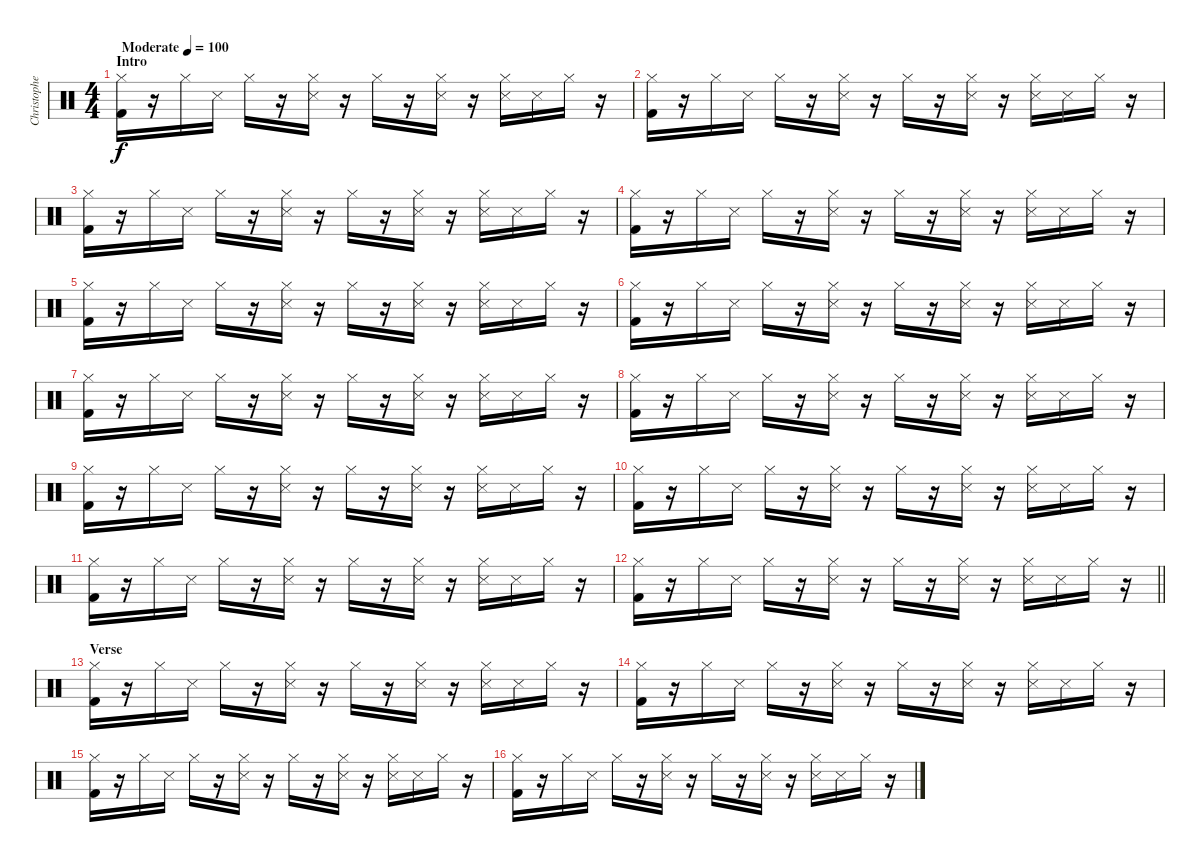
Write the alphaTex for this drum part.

\track ("Christopher - Drums" "Christophe") {instrument percussion}
\staff {score}
\articulation defaults
\ts (4 4)
\section ("" "Intro")
\tempo (100 "Moderate")
\clef neutral
\ks c
("Hi-Hat (closed)" "Kick (hit) 2").16{dy f} r.16 "Hi-Hat (closed)".16 "Snare (side stick) 3".16 "Hi-Hat (closed)".16 r.16 ("Hi-Hat (closed)" "Snare (side stick) 3").16 r.16 "Hi-Hat (closed)".16 r.16 ("Hi-Hat (closed)" "Snare (side stick) 3").16 r.16 ("Hi-Hat (closed)" "Snare (side stick) 3").16 "Snare (side stick) 3".16 "Hi-Hat (closed)".16 r.16 |
("Hi-Hat (closed)" "Kick (hit) 2").16 r.16 "Hi-Hat (closed)".16 "Snare (side stick) 3".16 "Hi-Hat (closed)".16 r.16 ("Hi-Hat (closed)" "Snare (side stick) 3").16 r.16 "Hi-Hat (closed)".16 r.16 ("Hi-Hat (closed)" "Snare (side stick) 3").16 r.16 ("Hi-Hat (closed)" "Snare (side stick) 3").16 "Snare (side stick) 3".16 "Hi-Hat (closed)".16 r.16 |
("Hi-Hat (closed)" "Kick (hit) 2").16 r.16 "Hi-Hat (closed)".16 "Snare (side stick) 3".16 "Hi-Hat (closed)".16 r.16 ("Hi-Hat (closed)" "Snare (side stick) 3").16 r.16 "Hi-Hat (closed)".16 r.16 ("Hi-Hat (closed)" "Snare (side stick) 3").16 r.16 ("Hi-Hat (closed)" "Snare (side stick) 3").16 "Snare (side stick) 3".16 "Hi-Hat (closed)".16 r.16 |
("Hi-Hat (closed)" "Kick (hit) 2").16 r.16 "Hi-Hat (closed)".16 "Snare (side stick) 3".16 "Hi-Hat (closed)".16 r.16 ("Hi-Hat (closed)" "Snare (side stick) 3").16 r.16 "Hi-Hat (closed)".16 r.16 ("Hi-Hat (closed)" "Snare (side stick) 3").16 r.16 ("Hi-Hat (closed)" "Snare (side stick) 3").16 "Snare (side stick) 3".16 "Hi-Hat (closed)".16 r.16 |
("Hi-Hat (closed)" "Kick (hit) 2").16 r.16 "Hi-Hat (closed)".16 "Snare (side stick) 3".16 "Hi-Hat (closed)".16 r.16 ("Hi-Hat (closed)" "Snare (side stick) 3").16 r.16 "Hi-Hat (closed)".16 r.16 ("Hi-Hat (closed)" "Snare (side stick) 3").16 r.16 ("Hi-Hat (closed)" "Snare (side stick) 3").16 "Snare (side stick) 3".16 "Hi-Hat (closed)".16 r.16 |
("Hi-Hat (closed)" "Kick (hit) 2").16 r.16 "Hi-Hat (closed)".16 "Snare (side stick) 3".16 "Hi-Hat (closed)".16 r.16 ("Hi-Hat (closed)" "Snare (side stick) 3").16 r.16 "Hi-Hat (closed)".16 r.16 ("Hi-Hat (closed)" "Snare (side stick) 3").16 r.16 ("Hi-Hat (closed)" "Snare (side stick) 3").16 "Snare (side stick) 3".16 "Hi-Hat (closed)".16 r.16 |
("Hi-Hat (closed)" "Kick (hit) 2").16 r.16 "Hi-Hat (closed)".16 "Snare (side stick) 3".16 "Hi-Hat (closed)".16 r.16 ("Hi-Hat (closed)" "Snare (side stick) 3").16 r.16 "Hi-Hat (closed)".16 r.16 ("Hi-Hat (closed)" "Snare (side stick) 3").16 r.16 ("Hi-Hat (closed)" "Snare (side stick) 3").16 "Snare (side stick) 3".16 "Hi-Hat (closed)".16 r.16 |
("Hi-Hat (closed)" "Kick (hit) 2").16 r.16 "Hi-Hat (closed)".16 "Snare (side stick) 3".16 "Hi-Hat (closed)".16 r.16 ("Hi-Hat (closed)" "Snare (side stick) 3").16 r.16 "Hi-Hat (closed)".16 r.16 ("Hi-Hat (closed)" "Snare (side stick) 3").16 r.16 ("Hi-Hat (closed)" "Snare (side stick) 3").16 "Snare (side stick) 3".16 "Hi-Hat (closed)".16 r.16 |
("Hi-Hat (closed)" "Kick (hit) 2").16 r.16 "Hi-Hat (closed)".16 "Snare (side stick) 3".16 "Hi-Hat (closed)".16 r.16 ("Hi-Hat (closed)" "Snare (side stick) 3").16 r.16 "Hi-Hat (closed)".16 r.16 ("Hi-Hat (closed)" "Snare (side stick) 3").16 r.16 ("Hi-Hat (closed)" "Snare (side stick) 3").16 "Snare (side stick) 3".16 "Hi-Hat (closed)".16 r.16 |
("Hi-Hat (closed)" "Kick (hit) 2").16 r.16 "Hi-Hat (closed)".16 "Snare (side stick) 3".16 "Hi-Hat (closed)".16 r.16 ("Hi-Hat (closed)" "Snare (side stick) 3").16 r.16 "Hi-Hat (closed)".16 r.16 ("Hi-Hat (closed)" "Snare (side stick) 3").16 r.16 ("Hi-Hat (closed)" "Snare (side stick) 3").16 "Snare (side stick) 3".16 "Hi-Hat (closed)".16 r.16 |
("Hi-Hat (closed)" "Kick (hit) 2").16 r.16 "Hi-Hat (closed)".16 "Snare (side stick) 3".16 "Hi-Hat (closed)".16 r.16 ("Hi-Hat (closed)" "Snare (side stick) 3").16 r.16 "Hi-Hat (closed)".16 r.16 ("Hi-Hat (closed)" "Snare (side stick) 3").16 r.16 ("Hi-Hat (closed)" "Snare (side stick) 3").16 "Snare (side stick) 3".16 "Hi-Hat (closed)".16 r.16 |
\barLineRight lightlight
("Hi-Hat (closed)" "Kick (hit) 2").16 r.16 "Hi-Hat (closed)".16 "Snare (side stick) 3".16 "Hi-Hat (closed)".16 r.16 ("Hi-Hat (closed)" "Snare (side stick) 3").16 r.16 "Hi-Hat (closed)".16 r.16 ("Hi-Hat (closed)" "Snare (side stick) 3").16 r.16 ("Hi-Hat (closed)" "Snare (side stick) 3").16 "Snare (side stick) 3".16 "Hi-Hat (closed)".16 r.16 |
\section ("" "Verse")
("Hi-Hat (closed)" "Kick (hit) 2").16 r.16 "Hi-Hat (closed)".16 "Snare (side stick) 3".16 "Hi-Hat (closed)".16 r.16 ("Hi-Hat (closed)" "Snare (side stick) 3").16 r.16 "Hi-Hat (closed)".16 r.16 ("Hi-Hat (closed)" "Snare (side stick) 3").16 r.16 ("Hi-Hat (closed)" "Snare (side stick) 3").16 "Snare (side stick) 3".16 "Hi-Hat (closed)".16 r.16 |
("Hi-Hat (closed)" "Kick (hit) 2").16 r.16 "Hi-Hat (closed)".16 "Snare (side stick) 3".16 "Hi-Hat (closed)".16 r.16 ("Hi-Hat (closed)" "Snare (side stick) 3").16 r.16 "Hi-Hat (closed)".16 r.16 ("Hi-Hat (closed)" "Snare (side stick) 3").16 r.16 ("Hi-Hat (closed)" "Snare (side stick) 3").16 "Snare (side stick) 3".16 "Hi-Hat (closed)".16 r.16 |
("Hi-Hat (closed)" "Kick (hit) 2").16 r.16 "Hi-Hat (closed)".16 "Snare (side stick) 3".16 "Hi-Hat (closed)".16 r.16 ("Hi-Hat (closed)" "Snare (side stick) 3").16 r.16 "Hi-Hat (closed)".16 r.16 ("Hi-Hat (closed)" "Snare (side stick) 3").16 r.16 ("Hi-Hat (closed)" "Snare (side stick) 3").16 "Snare (side stick) 3".16 "Hi-Hat (closed)".16 r.16 |
("Hi-Hat (closed)" "Kick (hit) 2").16 r.16 "Hi-Hat (closed)".16 "Snare (side stick) 3".16 "Hi-Hat (closed)".16 r.16 ("Hi-Hat (closed)" "Snare (side stick) 3").16 r.16 "Hi-Hat (closed)".16 r.16 ("Hi-Hat (closed)" "Snare (side stick) 3").16 r.16 ("Hi-Hat (closed)" "Snare (side stick) 3").16 "Snare (side stick) 3".16 "Hi-Hat (closed)".16 r.16
